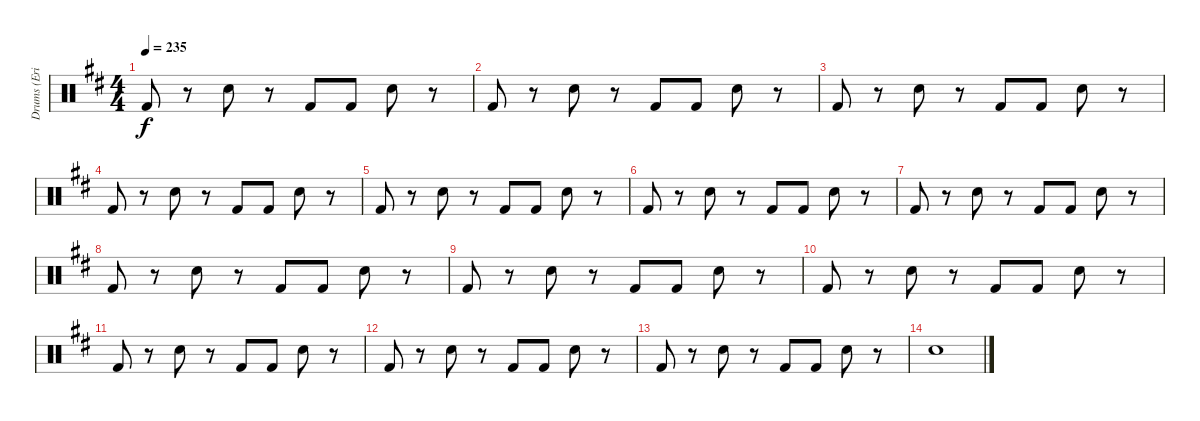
\track ("Drums (Eric Carr)" "Drums (Eri") {instrument percussion}
\staff {score}
\articulation defaults
\ts (4 4)
\tempo 235
\clef neutral
\ks d "Kick (hit) 2".8{dy f}
r.8 "Snare (hit) 2".8 r.8 "Kick (hit) 2".8 "Kick (hit) 2".8 "Snare (hit) 2".8 r.8 |
"Kick (hit) 2".8 r.8 "Snare (hit) 2".8 r.8 "Kick (hit) 2".8 "Kick (hit) 2".8 "Snare (hit) 2".8 r.8 |
"Kick (hit) 2".8 r.8 "Snare (hit) 2".8 r.8 "Kick (hit) 2".8 "Kick (hit) 2".8 "Snare (hit) 2".8 r.8 |
"Kick (hit) 2".8 r.8 "Snare (hit) 2".8 r.8 "Kick (hit) 2".8 "Kick (hit) 2".8 "Snare (hit) 2".8 r.8 |
"Kick (hit) 2".8 r.8 "Snare (hit) 2".8 r.8 "Kick (hit) 2".8 "Kick (hit) 2".8 "Snare (hit) 2".8 r.8 |
"Kick (hit) 2".8 r.8 "Snare (hit) 2".8 r.8 "Kick (hit) 2".8 "Kick (hit) 2".8 "Snare (hit) 2".8 r.8 |
"Kick (hit) 2".8 r.8 "Snare (hit) 2".8 r.8 "Kick (hit) 2".8 "Kick (hit) 2".8 "Snare (hit) 2".8 r.8 |
"Kick (hit) 2".8 r.8 "Snare (hit) 2".8 r.8 "Kick (hit) 2".8 "Kick (hit) 2".8 "Snare (hit) 2".8 r.8 |
"Kick (hit) 2".8 r.8 "Snare (hit) 2".8 r.8 "Kick (hit) 2".8 "Kick (hit) 2".8 "Snare (hit) 2".8 r.8 |
"Kick (hit) 2".8 r.8 "Snare (hit) 2".8 r.8 "Kick (hit) 2".8 "Kick (hit) 2".8 "Snare (hit) 2".8 r.8 |
"Kick (hit) 2".8 r.8 "Snare (hit) 2".8 r.8 "Kick (hit) 2".8 "Kick (hit) 2".8 "Snare (hit) 2".8 r.8 |
"Kick (hit) 2".8 r.8 "Snare (hit) 2".8 r.8 "Kick (hit) 2".8 "Kick (hit) 2".8 "Snare (hit) 2".8 r.8 |
"Kick (hit) 2".8 r.8 "Snare (hit) 2".8 r.8 "Kick (hit) 2".8 "Kick (hit) 2".8 "Snare (hit) 2".8 r.8 |
"Snare (hit) 2".1
